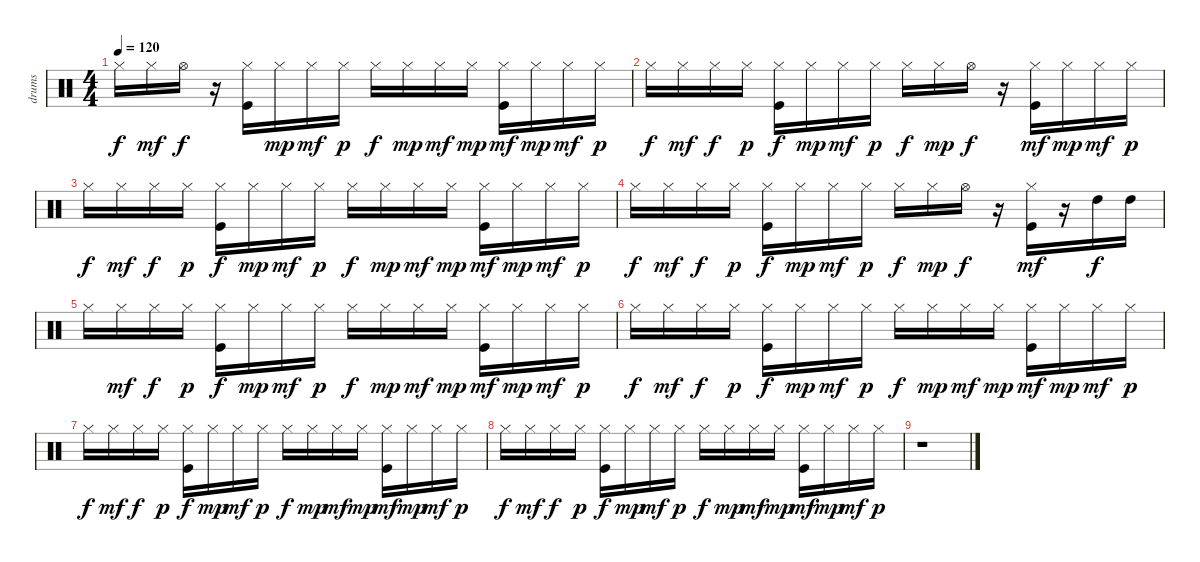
\track ("drums" "drums") {instrument percussion}
\staff {score}
\articulation defaults
\ts (4 4)
\tempo 120
\clef neutral
\ks c "Hi-Hat (closed)".16{dy f} "Hi-Hat (closed)".16{dy mf} "Hi-Hat (open)".16{dy f}
r.16 ("Kick (hit)" "Hi-Hat (closed)").16 "Hi-Hat (closed)".16{dy mp} "Hi-Hat (closed)".16{dy mf} "Hi-Hat (closed)".16{dy p} "Hi-Hat (closed)".16{dy f} "Hi-Hat (closed)".16{dy mp} "Hi-Hat (closed)".16{dy mf} "Hi-Hat (closed)".16{dy mp} ("Kick (hit)" "Hi-Hat (closed)").16{dy mf} "Hi-Hat (closed)".16{dy mp} "Hi-Hat (closed)".16{dy mf} "Hi-Hat (closed)".16{dy p} |
"Hi-Hat (closed)".16{dy f} "Hi-Hat (closed)".16{dy mf} "Hi-Hat (closed)".16{dy f} "Hi-Hat (closed)".16{dy p} ("Kick (hit)" "Hi-Hat (closed)").16{dy f} "Hi-Hat (closed)".16{dy mp} "Hi-Hat (closed)".16{dy mf} "Hi-Hat (closed)".16{dy p} "Hi-Hat (closed)".16{dy f} "Hi-Hat (closed)".16{dy mp} "Hi-Hat (open)".16{dy f} r.16 ("Kick (hit)" "Hi-Hat (closed)").16{dy mf} "Hi-Hat (closed)".16{dy mp} "Hi-Hat (closed)".16{dy mf} "Hi-Hat (closed)".16{dy p} |
"Hi-Hat (closed)".16{dy f} "Hi-Hat (closed)".16{dy mf} "Hi-Hat (closed)".16{dy f} "Hi-Hat (closed)".16{dy p} ("Kick (hit)" "Hi-Hat (closed)").16{dy f} "Hi-Hat (closed)".16{dy mp} "Hi-Hat (closed)".16{dy mf} "Hi-Hat (closed)".16{dy p} "Hi-Hat (closed)".16{dy f} "Hi-Hat (closed)".16{dy mp} "Hi-Hat (closed)".16{dy mf} "Hi-Hat (closed)".16{dy mp} ("Kick (hit)" "Hi-Hat (closed)").16{dy mf} "Hi-Hat (closed)".16{dy mp} "Hi-Hat (closed)".16{dy mf} "Hi-Hat (closed)".16{dy p} |
"Hi-Hat (closed)".16{dy f} "Hi-Hat (closed)".16{dy mf} "Hi-Hat (closed)".16{dy f} "Hi-Hat (closed)".16{dy p} ("Kick (hit)" "Hi-Hat (closed)").16{dy f} "Hi-Hat (closed)".16{dy mp} "Hi-Hat (closed)".16{dy mf} "Hi-Hat (closed)".16{dy p} "Hi-Hat (closed)".16{dy f} "Hi-Hat (closed)".16{dy mp} "Hi-Hat (open)".16{dy f} r.16 ("Kick (hit)" "Hi-Hat (closed)").16{dy mf} r.16 "High Tom (hit)".16{dy f} "High Tom (hit)".16 |
"Hi-Hat (closed)".16 "Hi-Hat (closed)".16{dy mf} "Hi-Hat (closed)".16{dy f} "Hi-Hat (closed)".16{dy p} ("Kick (hit)" "Hi-Hat (closed)").16{dy f} "Hi-Hat (closed)".16{dy mp} "Hi-Hat (closed)".16{dy mf} "Hi-Hat (closed)".16{dy p} "Hi-Hat (closed)".16{dy f} "Hi-Hat (closed)".16{dy mp} "Hi-Hat (closed)".16{dy mf} "Hi-Hat (closed)".16{dy mp} ("Kick (hit)" "Hi-Hat (closed)").16{dy mf} "Hi-Hat (closed)".16{dy mp} "Hi-Hat (closed)".16{dy mf} "Hi-Hat (closed)".16{dy p} |
"Hi-Hat (closed)".16{dy f} "Hi-Hat (closed)".16{dy mf} "Hi-Hat (closed)".16{dy f} "Hi-Hat (closed)".16{dy p} ("Kick (hit)" "Hi-Hat (closed)").16{dy f} "Hi-Hat (closed)".16{dy mp} "Hi-Hat (closed)".16{dy mf} "Hi-Hat (closed)".16{dy p} "Hi-Hat (closed)".16{dy f} "Hi-Hat (closed)".16{dy mp} "Hi-Hat (closed)".16{dy mf} "Hi-Hat (closed)".16{dy mp} ("Kick (hit)" "Hi-Hat (closed)").16{dy mf} "Hi-Hat (closed)".16{dy mp} "Hi-Hat (closed)".16{dy mf} "Hi-Hat (closed)".16{dy p} |
"Hi-Hat (closed)".16{dy f} "Hi-Hat (closed)".16{dy mf} "Hi-Hat (closed)".16{dy f} "Hi-Hat (closed)".16{dy p} ("Kick (hit)" "Hi-Hat (closed)").16{dy f} "Hi-Hat (closed)".16{dy mp} "Hi-Hat (closed)".16{dy mf} "Hi-Hat (closed)".16{dy p} "Hi-Hat (closed)".16{dy f} "Hi-Hat (closed)".16{dy mp} "Hi-Hat (closed)".16{dy mf} "Hi-Hat (closed)".16{dy mp} ("Kick (hit)" "Hi-Hat (closed)").16{dy mf} "Hi-Hat (closed)".16{dy mp} "Hi-Hat (closed)".16{dy mf} "Hi-Hat (closed)".16{dy p} |
"Hi-Hat (closed)".16{dy f} "Hi-Hat (closed)".16{dy mf} "Hi-Hat (closed)".16{dy f} "Hi-Hat (closed)".16{dy p} ("Kick (hit)" "Hi-Hat (closed)").16{dy f} "Hi-Hat (closed)".16{dy mp} "Hi-Hat (closed)".16{dy mf} "Hi-Hat (closed)".16{dy p} "Hi-Hat (closed)".16{dy f} "Hi-Hat (closed)".16{dy mp} "Hi-Hat (closed)".16{dy mf} "Hi-Hat (closed)".16{dy mp} ("Kick (hit)" "Hi-Hat (closed)").16{dy mf} "Hi-Hat (closed)".16{dy mp} "Hi-Hat (closed)".16{dy mf} "Hi-Hat (closed)".16{dy p} |
r.1
